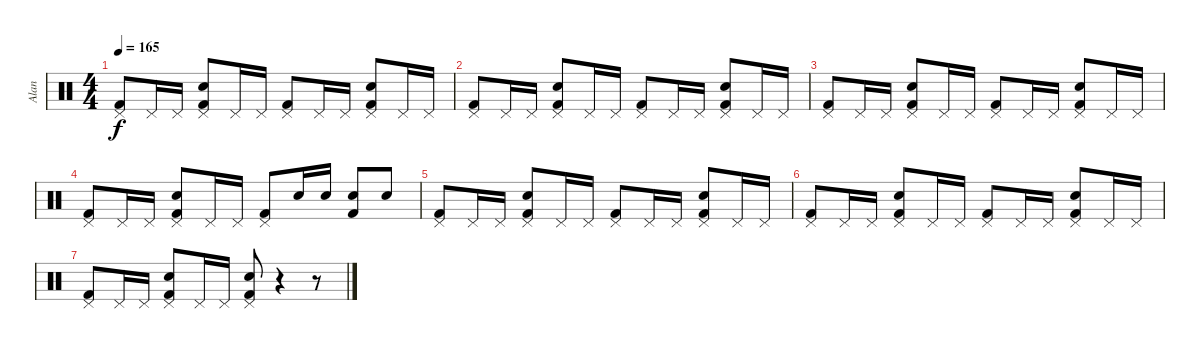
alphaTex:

\track ("Alan" "Alan") {instrument percussion}
\staff {score}
\articulation defaults
\ts (4 4)
\tempo 165
\clef neutral
\ks c
("Kick (hit) 2" "Pedal Hi-Hat (hit)").8{dy f} "Pedal Hi-Hat (hit)".16 "Pedal Hi-Hat (hit)".16 ("Pedal Hi-Hat (hit)" "Kick (hit) 2" "Snare (hit) 2").8 "Pedal Hi-Hat (hit)".16 "Pedal Hi-Hat (hit)".16 ("Pedal Hi-Hat (hit)" "Kick (hit) 2").8 "Pedal Hi-Hat (hit)".16 "Pedal Hi-Hat (hit)".16 ("Pedal Hi-Hat (hit)" "Kick (hit) 2" "Snare (hit) 2").8 "Pedal Hi-Hat (hit)".16 "Pedal Hi-Hat (hit)".16 |
("Kick (hit) 2" "Pedal Hi-Hat (hit)").8 "Pedal Hi-Hat (hit)".16 "Pedal Hi-Hat (hit)".16 ("Pedal Hi-Hat (hit)" "Kick (hit) 2" "Snare (hit) 2").8 "Pedal Hi-Hat (hit)".16 "Pedal Hi-Hat (hit)".16 ("Pedal Hi-Hat (hit)" "Kick (hit) 2").8 "Pedal Hi-Hat (hit)".16 "Pedal Hi-Hat (hit)".16 ("Pedal Hi-Hat (hit)" "Kick (hit) 2" "Snare (hit) 2").8 "Pedal Hi-Hat (hit)".16 "Pedal Hi-Hat (hit)".16 |
("Kick (hit) 2" "Pedal Hi-Hat (hit)").8 "Pedal Hi-Hat (hit)".16 "Pedal Hi-Hat (hit)".16 ("Pedal Hi-Hat (hit)" "Kick (hit) 2" "Snare (hit) 2").8 "Pedal Hi-Hat (hit)".16 "Pedal Hi-Hat (hit)".16 ("Pedal Hi-Hat (hit)" "Kick (hit) 2").8 "Pedal Hi-Hat (hit)".16 "Pedal Hi-Hat (hit)".16 ("Pedal Hi-Hat (hit)" "Kick (hit) 2" "Snare (hit) 2").8 "Pedal Hi-Hat (hit)".16 "Pedal Hi-Hat (hit)".16 |
("Kick (hit) 2" "Pedal Hi-Hat (hit)").8 "Pedal Hi-Hat (hit)".16 "Pedal Hi-Hat (hit)".16 ("Pedal Hi-Hat (hit)" "Kick (hit) 2" "Snare (hit) 2").8 "Pedal Hi-Hat (hit)".16 "Pedal Hi-Hat (hit)".16 ("Pedal Hi-Hat (hit)" "Kick (hit) 2").8 "Snare (hit) 2".16 "Snare (hit) 2".16 ("Snare (hit) 2" "Kick (hit) 2").8 "Snare (hit) 2".8 |
("Kick (hit) 2" "Pedal Hi-Hat (hit)").8 "Pedal Hi-Hat (hit)".16 "Pedal Hi-Hat (hit)".16 ("Pedal Hi-Hat (hit)" "Kick (hit) 2" "Snare (hit) 2").8 "Pedal Hi-Hat (hit)".16 "Pedal Hi-Hat (hit)".16 ("Pedal Hi-Hat (hit)" "Kick (hit) 2").8 "Pedal Hi-Hat (hit)".16 "Pedal Hi-Hat (hit)".16 ("Pedal Hi-Hat (hit)" "Kick (hit) 2" "Snare (hit) 2").8 "Pedal Hi-Hat (hit)".16 "Pedal Hi-Hat (hit)".16 |
("Kick (hit) 2" "Pedal Hi-Hat (hit)").8 "Pedal Hi-Hat (hit)".16 "Pedal Hi-Hat (hit)".16 ("Pedal Hi-Hat (hit)" "Kick (hit) 2" "Snare (hit) 2").8 "Pedal Hi-Hat (hit)".16 "Pedal Hi-Hat (hit)".16 ("Pedal Hi-Hat (hit)" "Kick (hit) 2").8 "Pedal Hi-Hat (hit)".16 "Pedal Hi-Hat (hit)".16 ("Pedal Hi-Hat (hit)" "Kick (hit) 2" "Snare (hit) 2").8 "Pedal Hi-Hat (hit)".16 "Pedal Hi-Hat (hit)".16 |
("Kick (hit) 2" "Pedal Hi-Hat (hit)").8 "Pedal Hi-Hat (hit)".16 "Pedal Hi-Hat (hit)".16 ("Pedal Hi-Hat (hit)" "Kick (hit) 2" "Snare (hit) 2").8 "Pedal Hi-Hat (hit)".16 "Pedal Hi-Hat (hit)".16 ("Pedal Hi-Hat (hit)" "Kick (hit) 2" "Snare (hit) 2").8 r.4 r.8
